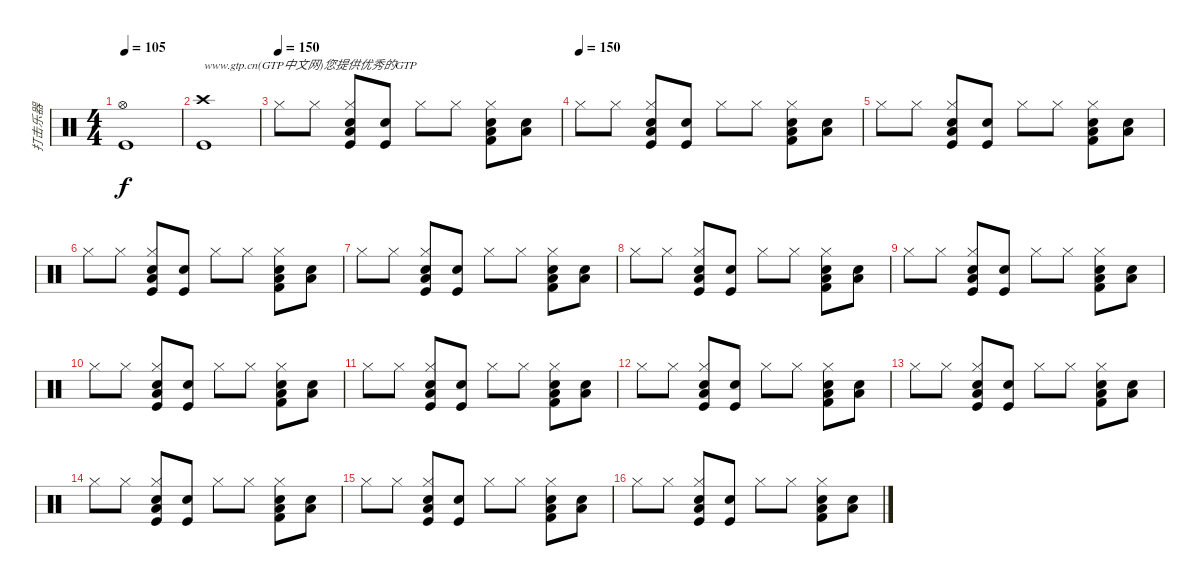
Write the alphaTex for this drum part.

\track ("打击乐器" "打击乐器") {instrument percussion}
\staff {score}
\articulation defaults
\ts (4 4)
\tempo 105
\clef neutral
\ks c
("Hi-Hat (open)" "Kick (hit)").1{dy f} |
("Crash high (hit)" "Kick (hit)").1{txt "www.gtp.cn(GTP中文网)您提供优秀的GTP"} |
\tempo (150)
"Hi-Hat (closed)".8 "Hi-Hat (closed)".8 ("Snare (hit) 2" "Low Tom (hit)" "Hi-Hat (closed)" "Kick (hit)").8 ("Snare (hit) 2" "Kick (hit)").8 "Hi-Hat (closed)".8 "Hi-Hat (closed)".8 ("Snare (hit) 2" "Low Tom (hit)" "Hi-Hat (closed)" "Kick (hit) 2").8 ("Snare (hit) 2" "Low Tom (hit)").8 |
\tempo (150)
"Hi-Hat (closed)".8 "Hi-Hat (closed)".8 ("Snare (hit) 2" "Low Tom (hit)" "Hi-Hat (closed)" "Kick (hit)").8 ("Snare (hit) 2" "Kick (hit)").8 "Hi-Hat (closed)".8 "Hi-Hat (closed)".8 ("Snare (hit) 2" "Low Tom (hit)" "Hi-Hat (closed)" "Kick (hit) 2").8 ("Snare (hit) 2" "Low Tom (hit)").8 |
"Hi-Hat (closed)".8 "Hi-Hat (closed)".8 ("Snare (hit) 2" "Low Tom (hit)" "Hi-Hat (closed)" "Kick (hit)").8 ("Snare (hit) 2" "Kick (hit)").8 "Hi-Hat (closed)".8 "Hi-Hat (closed)".8 ("Snare (hit) 2" "Low Tom (hit)" "Hi-Hat (closed)" "Kick (hit) 2").8 ("Snare (hit) 2" "Low Tom (hit)").8 |
"Hi-Hat (closed)".8 "Hi-Hat (closed)".8 ("Snare (hit) 2" "Low Tom (hit)" "Hi-Hat (closed)" "Kick (hit)").8 ("Snare (hit) 2" "Kick (hit)").8 "Hi-Hat (closed)".8 "Hi-Hat (closed)".8 ("Snare (hit) 2" "Low Tom (hit)" "Hi-Hat (closed)" "Kick (hit) 2").8 ("Snare (hit) 2" "Low Tom (hit)").8 |
"Hi-Hat (closed)".8 "Hi-Hat (closed)".8 ("Snare (hit) 2" "Low Tom (hit)" "Hi-Hat (closed)" "Kick (hit)").8 ("Snare (hit) 2" "Kick (hit)").8 "Hi-Hat (closed)".8 "Hi-Hat (closed)".8 ("Snare (hit) 2" "Low Tom (hit)" "Hi-Hat (closed)" "Kick (hit) 2").8 ("Snare (hit) 2" "Low Tom (hit)").8 |
"Hi-Hat (closed)".8 "Hi-Hat (closed)".8 ("Snare (hit) 2" "Low Tom (hit)" "Hi-Hat (closed)" "Kick (hit)").8 ("Snare (hit) 2" "Kick (hit)").8 "Hi-Hat (closed)".8 "Hi-Hat (closed)".8 ("Snare (hit) 2" "Low Tom (hit)" "Hi-Hat (closed)" "Kick (hit) 2").8 ("Snare (hit) 2" "Low Tom (hit)").8 |
"Hi-Hat (closed)".8 "Hi-Hat (closed)".8 ("Snare (hit) 2" "Low Tom (hit)" "Hi-Hat (closed)" "Kick (hit)").8 ("Snare (hit) 2" "Kick (hit)").8 "Hi-Hat (closed)".8 "Hi-Hat (closed)".8 ("Snare (hit) 2" "Low Tom (hit)" "Hi-Hat (closed)" "Kick (hit) 2").8 ("Snare (hit) 2" "Low Tom (hit)").8 |
"Hi-Hat (closed)".8 "Hi-Hat (closed)".8 ("Snare (hit) 2" "Low Tom (hit)" "Hi-Hat (closed)" "Kick (hit)").8 ("Snare (hit) 2" "Kick (hit)").8 "Hi-Hat (closed)".8 "Hi-Hat (closed)".8 ("Snare (hit) 2" "Low Tom (hit)" "Hi-Hat (closed)" "Kick (hit) 2").8 ("Snare (hit) 2" "Low Tom (hit)").8 |
"Hi-Hat (closed)".8 "Hi-Hat (closed)".8 ("Snare (hit) 2" "Low Tom (hit)" "Hi-Hat (closed)" "Kick (hit)").8 ("Snare (hit) 2" "Kick (hit)").8 "Hi-Hat (closed)".8 "Hi-Hat (closed)".8 ("Snare (hit) 2" "Low Tom (hit)" "Hi-Hat (closed)" "Kick (hit) 2").8 ("Snare (hit) 2" "Low Tom (hit)").8 |
"Hi-Hat (closed)".8 "Hi-Hat (closed)".8 ("Snare (hit) 2" "Low Tom (hit)" "Hi-Hat (closed)" "Kick (hit)").8 ("Snare (hit) 2" "Kick (hit)").8 "Hi-Hat (closed)".8 "Hi-Hat (closed)".8 ("Snare (hit) 2" "Low Tom (hit)" "Hi-Hat (closed)" "Kick (hit) 2").8 ("Snare (hit) 2" "Low Tom (hit)").8 |
"Hi-Hat (closed)".8 "Hi-Hat (closed)".8 ("Snare (hit) 2" "Low Tom (hit)" "Hi-Hat (closed)" "Kick (hit)").8 ("Snare (hit) 2" "Kick (hit)").8 "Hi-Hat (closed)".8 "Hi-Hat (closed)".8 ("Snare (hit) 2" "Low Tom (hit)" "Hi-Hat (closed)" "Kick (hit) 2").8 ("Snare (hit) 2" "Low Tom (hit)").8 |
"Hi-Hat (closed)".8 "Hi-Hat (closed)".8 ("Snare (hit) 2" "Low Tom (hit)" "Hi-Hat (closed)" "Kick (hit)").8 ("Snare (hit) 2" "Kick (hit)").8 "Hi-Hat (closed)".8 "Hi-Hat (closed)".8 ("Snare (hit) 2" "Low Tom (hit)" "Hi-Hat (closed)" "Kick (hit) 2").8 ("Snare (hit) 2" "Low Tom (hit)").8 |
"Hi-Hat (closed)".8 "Hi-Hat (closed)".8 ("Snare (hit) 2" "Low Tom (hit)" "Hi-Hat (closed)" "Kick (hit)").8 ("Snare (hit) 2" "Kick (hit)").8 "Hi-Hat (closed)".8 "Hi-Hat (closed)".8 ("Snare (hit) 2" "Low Tom (hit)" "Hi-Hat (closed)" "Kick (hit) 2").8 ("Snare (hit) 2" "Low Tom (hit)").8 |
"Hi-Hat (closed)".8 "Hi-Hat (closed)".8 ("Snare (hit) 2" "Low Tom (hit)" "Hi-Hat (closed)" "Kick (hit)").8 ("Snare (hit) 2" "Kick (hit)").8 "Hi-Hat (closed)".8 "Hi-Hat (closed)".8 ("Snare (hit) 2" "Low Tom (hit)" "Hi-Hat (closed)" "Kick (hit) 2").8 ("Snare (hit) 2" "Low Tom (hit)").8
